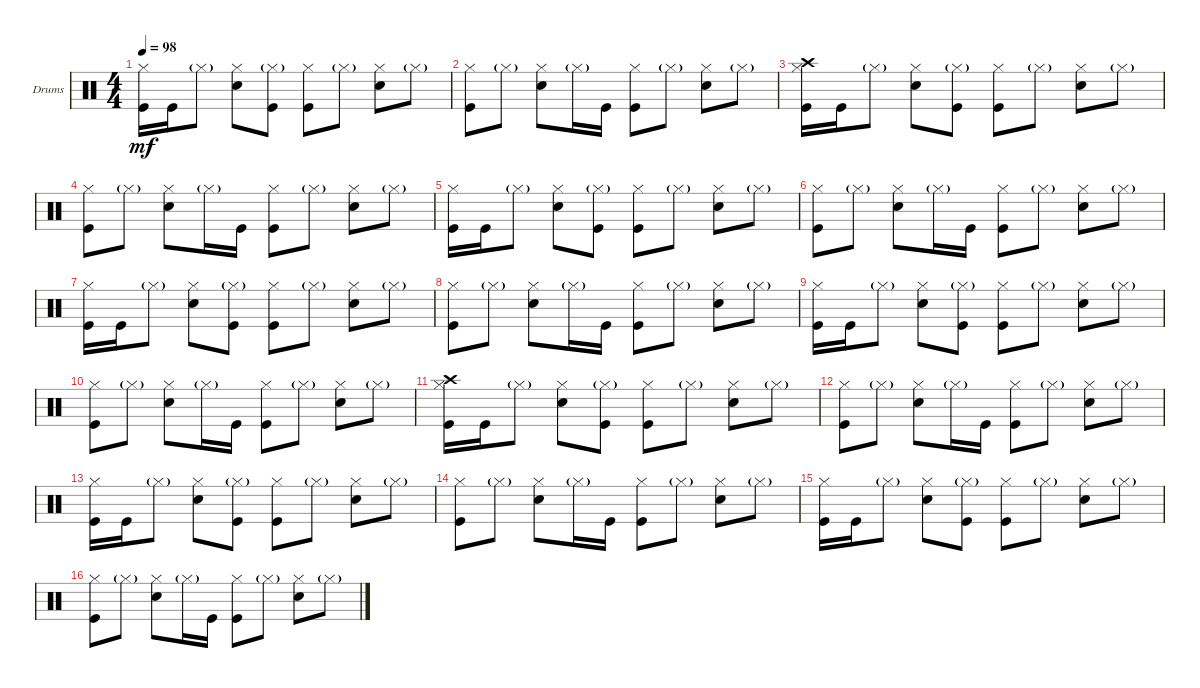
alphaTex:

\defaultSystemsLayout 4
\bracketExtendMode groupsimilarinstruments
\firstSystemTrackNameOrientation horizontal
\otherSystemsTrackNameOrientation horizontal
\track ("Drumkit" "Drums") {instrument percussion}
\staff {score}
\articulation defaults
\ts (4 4)
\tempo 98
\clef neutral
\ks c
("Kick (hit)" "Hi-Hat (closed)").16{dy mf} "Kick (hit)".16 "Hi-Hat (closed)"{g}.8 ("Snare (hit) 2" "Hi-Hat (closed)").8 ("Kick (hit)" "Hi-Hat (closed)"{g}).8 ("Kick (hit)" "Hi-Hat (closed)").8 "Hi-Hat (closed)"{g}.8 ("Snare (hit) 2" "Hi-Hat (closed)").8 "Hi-Hat (closed)"{g}.8 |
("Kick (hit)" "Hi-Hat (closed)").8 "Hi-Hat (closed)"{g}.8 ("Snare (hit) 2" "Hi-Hat (closed)").8 "Hi-Hat (closed)"{g}.16 "Kick (hit)".16 ("Kick (hit)" "Hi-Hat (closed)").8 "Hi-Hat (closed)"{g}.8 ("Snare (hit) 2" "Hi-Hat (closed)").8 "Hi-Hat (closed)"{g}.8 |
("Kick (hit)" "Hi-Hat (closed)" "Crash high (hit)").16 "Kick (hit)".16 "Hi-Hat (closed)"{g}.8 ("Snare (hit) 2" "Hi-Hat (closed)").8 ("Kick (hit)" "Hi-Hat (closed)"{g}).8 ("Kick (hit)" "Hi-Hat (closed)").8 "Hi-Hat (closed)"{g}.8 ("Snare (hit) 2" "Hi-Hat (closed)").8 "Hi-Hat (closed)"{g}.8 |
("Kick (hit)" "Hi-Hat (closed)").8 "Hi-Hat (closed)"{g}.8 ("Snare (hit) 2" "Hi-Hat (closed)").8 "Hi-Hat (closed)"{g}.16 "Kick (hit)".16 ("Kick (hit)" "Hi-Hat (closed)").8 "Hi-Hat (closed)"{g}.8 ("Snare (hit) 2" "Hi-Hat (closed)").8 "Hi-Hat (closed)"{g}.8 |
("Kick (hit)" "Hi-Hat (closed)").16 "Kick (hit)".16 "Hi-Hat (closed)"{g}.8 ("Snare (hit) 2" "Hi-Hat (closed)").8 ("Kick (hit)" "Hi-Hat (closed)"{g}).8 ("Kick (hit)" "Hi-Hat (closed)").8 "Hi-Hat (closed)"{g}.8 ("Snare (hit) 2" "Hi-Hat (closed)").8 "Hi-Hat (closed)"{g}.8 |
("Kick (hit)" "Hi-Hat (closed)").8 "Hi-Hat (closed)"{g}.8 ("Snare (hit) 2" "Hi-Hat (closed)").8 "Hi-Hat (closed)"{g}.16 "Kick (hit)".16 ("Kick (hit)" "Hi-Hat (closed)").8 "Hi-Hat (closed)"{g}.8 ("Snare (hit) 2" "Hi-Hat (closed)").8 "Hi-Hat (closed)"{g}.8 |
("Kick (hit)" "Hi-Hat (closed)").16 "Kick (hit)".16 "Hi-Hat (closed)"{g}.8 ("Snare (hit) 2" "Hi-Hat (closed)").8 ("Kick (hit)" "Hi-Hat (closed)"{g}).8 ("Kick (hit)" "Hi-Hat (closed)").8 "Hi-Hat (closed)"{g}.8 ("Snare (hit) 2" "Hi-Hat (closed)").8 "Hi-Hat (closed)"{g}.8 |
("Kick (hit)" "Hi-Hat (closed)").8 "Hi-Hat (closed)"{g}.8 ("Snare (hit) 2" "Hi-Hat (closed)").8 "Hi-Hat (closed)"{g}.16 "Kick (hit)".16 ("Kick (hit)" "Hi-Hat (closed)").8 "Hi-Hat (closed)"{g}.8 ("Snare (hit) 2" "Hi-Hat (closed)").8 "Hi-Hat (closed)"{g}.8 |
("Kick (hit)" "Hi-Hat (closed)").16 "Kick (hit)".16 "Hi-Hat (closed)"{g}.8 ("Snare (hit) 2" "Hi-Hat (closed)").8 ("Kick (hit)" "Hi-Hat (closed)"{g}).8 ("Kick (hit)" "Hi-Hat (closed)").8 "Hi-Hat (closed)"{g}.8 ("Snare (hit) 2" "Hi-Hat (closed)").8 "Hi-Hat (closed)"{g}.8 |
("Kick (hit)" "Hi-Hat (closed)").8 "Hi-Hat (closed)"{g}.8 ("Snare (hit) 2" "Hi-Hat (closed)").8 "Hi-Hat (closed)"{g}.16 "Kick (hit)".16 ("Kick (hit)" "Hi-Hat (closed)").8 "Hi-Hat (closed)"{g}.8 ("Snare (hit) 2" "Hi-Hat (closed)").8 "Hi-Hat (closed)"{g}.8 |
("Kick (hit)" "Hi-Hat (closed)" "Crash high (hit)").16 "Kick (hit)".16 "Hi-Hat (closed)"{g}.8 ("Snare (hit) 2" "Hi-Hat (closed)").8 ("Kick (hit)" "Hi-Hat (closed)"{g}).8 ("Kick (hit)" "Hi-Hat (closed)").8 "Hi-Hat (closed)"{g}.8 ("Snare (hit) 2" "Hi-Hat (closed)").8 "Hi-Hat (closed)"{g}.8 |
("Kick (hit)" "Hi-Hat (closed)").8 "Hi-Hat (closed)"{g}.8 ("Snare (hit) 2" "Hi-Hat (closed)").8 "Hi-Hat (closed)"{g}.16 "Kick (hit)".16 ("Kick (hit)" "Hi-Hat (closed)").8 "Hi-Hat (closed)"{g}.8 ("Snare (hit) 2" "Hi-Hat (closed)").8 "Hi-Hat (closed)"{g}.8 |
("Kick (hit)" "Hi-Hat (closed)").16 "Kick (hit)".16 "Hi-Hat (closed)"{g}.8 ("Snare (hit) 2" "Hi-Hat (closed)").8 ("Kick (hit)" "Hi-Hat (closed)"{g}).8 ("Kick (hit)" "Hi-Hat (closed)").8 "Hi-Hat (closed)"{g}.8 ("Snare (hit) 2" "Hi-Hat (closed)").8 "Hi-Hat (closed)"{g}.8 |
("Kick (hit)" "Hi-Hat (closed)").8 "Hi-Hat (closed)"{g}.8 ("Snare (hit) 2" "Hi-Hat (closed)").8 "Hi-Hat (closed)"{g}.16 "Kick (hit)".16 ("Kick (hit)" "Hi-Hat (closed)").8 "Hi-Hat (closed)"{g}.8 ("Snare (hit) 2" "Hi-Hat (closed)").8 "Hi-Hat (closed)"{g}.8 |
("Kick (hit)" "Hi-Hat (closed)").16 "Kick (hit)".16 "Hi-Hat (closed)"{g}.8 ("Snare (hit) 2" "Hi-Hat (closed)").8 ("Kick (hit)" "Hi-Hat (closed)"{g}).8 ("Kick (hit)" "Hi-Hat (closed)").8 "Hi-Hat (closed)"{g}.8 ("Snare (hit) 2" "Hi-Hat (closed)").8 "Hi-Hat (closed)"{g}.8 |
("Kick (hit)" "Hi-Hat (closed)").8 "Hi-Hat (closed)"{g}.8 ("Snare (hit) 2" "Hi-Hat (closed)").8 "Hi-Hat (closed)"{g}.16 "Kick (hit)".16 ("Kick (hit)" "Hi-Hat (closed)").8 "Hi-Hat (closed)"{g}.8 ("Snare (hit) 2" "Hi-Hat (closed)").8 "Hi-Hat (closed)"{g}.8
